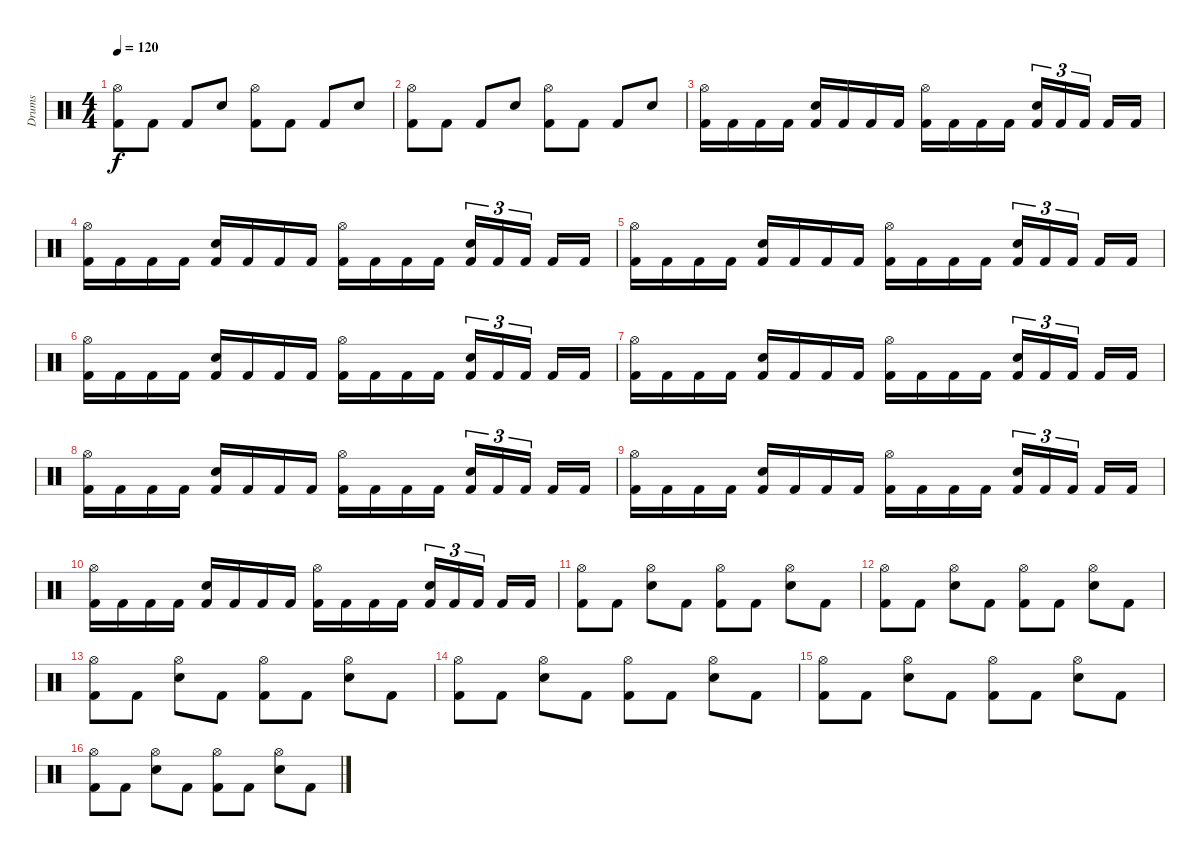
\track ("Drums" "Drums") {instrument percussion}
\staff {score}
\articulation defaults
\ts (4 4)
\tempo 120
\clef neutral
\ks c
("Hi-Hat (open)" "Kick (hit) 2").8{dy f} "Kick (hit) 2".8 "Kick (hit) 2".8 "Electric Snare (hit)".8 ("Hi-Hat (open)" "Kick (hit) 2").8 "Kick (hit) 2".8 "Kick (hit) 2".8 "Electric Snare (hit)".8 |
("Hi-Hat (open)" "Kick (hit) 2").8 "Kick (hit) 2".8 "Kick (hit) 2".8 "Electric Snare (hit)".8 ("Hi-Hat (open)" "Kick (hit) 2").8 "Kick (hit) 2".8 "Kick (hit) 2".8 "Electric Snare (hit)".8 |
("Hi-Hat (open)" "Kick (hit) 2").16 "Kick (hit) 2".16 "Kick (hit) 2".16 "Kick (hit) 2".16 ("Electric Snare (hit)" "Kick (hit) 2").16 "Kick (hit) 2".16 "Kick (hit) 2".16 "Kick (hit) 2".16 ("Hi-Hat (open)" "Kick (hit) 2").16 "Kick (hit) 2".16 "Kick (hit) 2".16 "Kick (hit) 2".16 ("Electric Snare (hit)" "Kick (hit) 2").16{tu (3 2)} "Kick (hit) 2".16{tu (3 2)} "Kick (hit) 2".16{tu (3 2)} "Kick (hit) 2".16 "Kick (hit) 2".16 |
("Hi-Hat (open)" "Kick (hit) 2").16 "Kick (hit) 2".16 "Kick (hit) 2".16 "Kick (hit) 2".16 ("Electric Snare (hit)" "Kick (hit) 2").16 "Kick (hit) 2".16 "Kick (hit) 2".16 "Kick (hit) 2".16 ("Hi-Hat (open)" "Kick (hit) 2").16 "Kick (hit) 2".16 "Kick (hit) 2".16 "Kick (hit) 2".16 ("Electric Snare (hit)" "Kick (hit) 2").16{tu (3 2)} "Kick (hit) 2".16{tu (3 2)} "Kick (hit) 2".16{tu (3 2)} "Kick (hit) 2".16 "Kick (hit) 2".16 |
("Hi-Hat (open)" "Kick (hit) 2").16 "Kick (hit) 2".16 "Kick (hit) 2".16 "Kick (hit) 2".16 ("Electric Snare (hit)" "Kick (hit) 2").16 "Kick (hit) 2".16 "Kick (hit) 2".16 "Kick (hit) 2".16 ("Hi-Hat (open)" "Kick (hit) 2").16 "Kick (hit) 2".16 "Kick (hit) 2".16 "Kick (hit) 2".16 ("Electric Snare (hit)" "Kick (hit) 2").16{tu (3 2)} "Kick (hit) 2".16{tu (3 2)} "Kick (hit) 2".16{tu (3 2)} "Kick (hit) 2".16 "Kick (hit) 2".16 |
("Hi-Hat (open)" "Kick (hit) 2").16 "Kick (hit) 2".16 "Kick (hit) 2".16 "Kick (hit) 2".16 ("Electric Snare (hit)" "Kick (hit) 2").16 "Kick (hit) 2".16 "Kick (hit) 2".16 "Kick (hit) 2".16 ("Hi-Hat (open)" "Kick (hit) 2").16 "Kick (hit) 2".16 "Kick (hit) 2".16 "Kick (hit) 2".16 ("Electric Snare (hit)" "Kick (hit) 2").16{tu (3 2)} "Kick (hit) 2".16{tu (3 2)} "Kick (hit) 2".16{tu (3 2)} "Kick (hit) 2".16 "Kick (hit) 2".16 |
("Hi-Hat (open)" "Kick (hit) 2").16 "Kick (hit) 2".16 "Kick (hit) 2".16 "Kick (hit) 2".16 ("Electric Snare (hit)" "Kick (hit) 2").16 "Kick (hit) 2".16 "Kick (hit) 2".16 "Kick (hit) 2".16 ("Hi-Hat (open)" "Kick (hit) 2").16 "Kick (hit) 2".16 "Kick (hit) 2".16 "Kick (hit) 2".16 ("Electric Snare (hit)" "Kick (hit) 2").16{tu (3 2)} "Kick (hit) 2".16{tu (3 2)} "Kick (hit) 2".16{tu (3 2)} "Kick (hit) 2".16 "Kick (hit) 2".16 |
("Hi-Hat (open)" "Kick (hit) 2").16 "Kick (hit) 2".16 "Kick (hit) 2".16 "Kick (hit) 2".16 ("Electric Snare (hit)" "Kick (hit) 2").16 "Kick (hit) 2".16 "Kick (hit) 2".16 "Kick (hit) 2".16 ("Hi-Hat (open)" "Kick (hit) 2").16 "Kick (hit) 2".16 "Kick (hit) 2".16 "Kick (hit) 2".16 ("Electric Snare (hit)" "Kick (hit) 2").16{tu (3 2)} "Kick (hit) 2".16{tu (3 2)} "Kick (hit) 2".16{tu (3 2)} "Kick (hit) 2".16 "Kick (hit) 2".16 |
("Hi-Hat (open)" "Kick (hit) 2").16 "Kick (hit) 2".16 "Kick (hit) 2".16 "Kick (hit) 2".16 ("Electric Snare (hit)" "Kick (hit) 2").16 "Kick (hit) 2".16 "Kick (hit) 2".16 "Kick (hit) 2".16 ("Hi-Hat (open)" "Kick (hit) 2").16 "Kick (hit) 2".16 "Kick (hit) 2".16 "Kick (hit) 2".16 ("Electric Snare (hit)" "Kick (hit) 2").16{tu (3 2)} "Kick (hit) 2".16{tu (3 2)} "Kick (hit) 2".16{tu (3 2)} "Kick (hit) 2".16 "Kick (hit) 2".16 |
("Hi-Hat (open)" "Kick (hit) 2").16 "Kick (hit) 2".16 "Kick (hit) 2".16 "Kick (hit) 2".16 ("Electric Snare (hit)" "Kick (hit) 2").16 "Kick (hit) 2".16 "Kick (hit) 2".16 "Kick (hit) 2".16 ("Hi-Hat (open)" "Kick (hit) 2").16 "Kick (hit) 2".16 "Kick (hit) 2".16 "Kick (hit) 2".16 ("Electric Snare (hit)" "Kick (hit) 2").16{tu (3 2)} "Kick (hit) 2".16{tu (3 2)} "Kick (hit) 2".16{tu (3 2)} "Kick (hit) 2".16 "Kick (hit) 2".16 |
("Hi-Hat (open)" "Kick (hit) 2").8 "Kick (hit) 2".8 ("Hi-Hat (open)" "Electric Snare (hit)").8 "Kick (hit) 2".8 ("Hi-Hat (open)" "Kick (hit) 2").8 "Kick (hit) 2".8 ("Hi-Hat (open)" "Electric Snare (hit)").8 "Kick (hit) 2".8 |
("Hi-Hat (open)" "Kick (hit) 2").8 "Kick (hit) 2".8 ("Hi-Hat (open)" "Electric Snare (hit)").8 "Kick (hit) 2".8 ("Hi-Hat (open)" "Kick (hit) 2").8 "Kick (hit) 2".8 ("Hi-Hat (open)" "Electric Snare (hit)").8 "Kick (hit) 2".8 |
("Hi-Hat (open)" "Kick (hit) 2").8 "Kick (hit) 2".8 ("Hi-Hat (open)" "Electric Snare (hit)").8 "Kick (hit) 2".8 ("Hi-Hat (open)" "Kick (hit) 2").8 "Kick (hit) 2".8 ("Hi-Hat (open)" "Electric Snare (hit)").8 "Kick (hit) 2".8 |
("Hi-Hat (open)" "Kick (hit) 2").8 "Kick (hit) 2".8 ("Hi-Hat (open)" "Electric Snare (hit)").8 "Kick (hit) 2".8 ("Hi-Hat (open)" "Kick (hit) 2").8 "Kick (hit) 2".8 ("Hi-Hat (open)" "Electric Snare (hit)").8 "Kick (hit) 2".8 |
("Hi-Hat (open)" "Kick (hit) 2").8 "Kick (hit) 2".8 ("Hi-Hat (open)" "Electric Snare (hit)").8 "Kick (hit) 2".8 ("Hi-Hat (open)" "Kick (hit) 2").8 "Kick (hit) 2".8 ("Hi-Hat (open)" "Electric Snare (hit)").8 "Kick (hit) 2".8 |
("Hi-Hat (open)" "Kick (hit) 2").8 "Kick (hit) 2".8 ("Hi-Hat (open)" "Electric Snare (hit)").8 "Kick (hit) 2".8 ("Hi-Hat (open)" "Kick (hit) 2").8 "Kick (hit) 2".8 ("Hi-Hat (open)" "Electric Snare (hit)").8 "Kick (hit) 2".8
